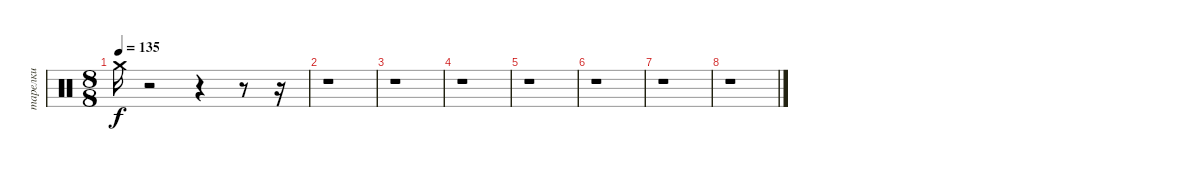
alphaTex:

\track ("тарелки" "тарелки") {instrument percussion}
\staff {score}
\articulation defaults
\ts (8 8)
\tempo 135
\clef neutral
\ks c "Crash medium (hit)".16{dy f}
r.2 r.4 r.8 r.16 |
r.1 |
r.1 |
r.1 |
r.1 |
r.1 |
r.1 |
r.1
